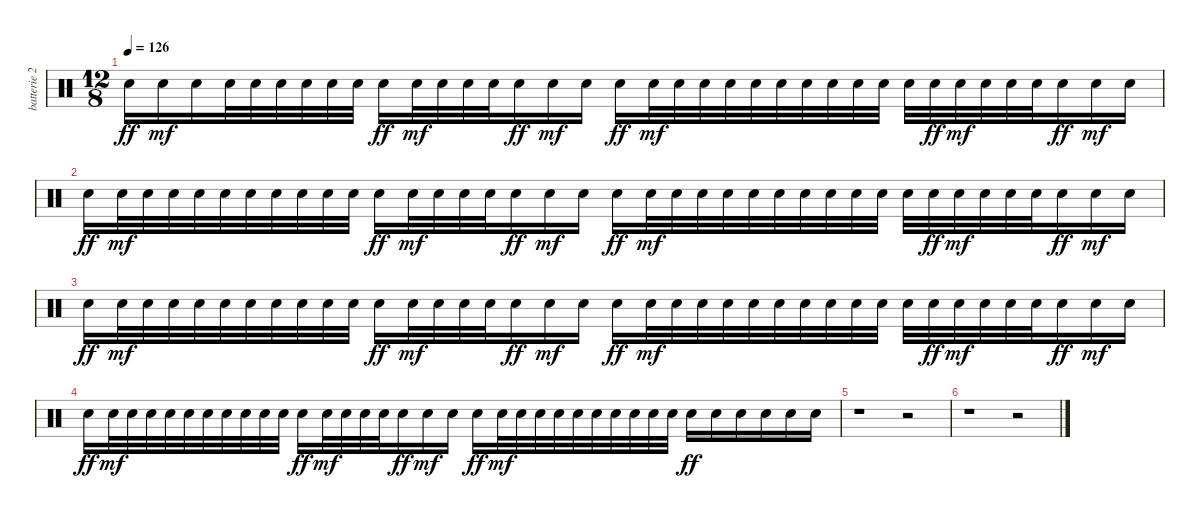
\track ("batterie 2" "batterie 2") {instrument percussion}
\staff {score}
\articulation defaults
\ts (12 8)
\tempo 126
\clef neutral
\ks c "Electric Snare (hit)".16{dy ff} "Electric Snare (hit)".16{dy mf} "Electric Snare (hit)".16 "Electric Snare (hit)".32 "Electric Snare (hit)".32 "Electric Snare (hit)".32 "Electric Snare (hit)".32 "Electric Snare (hit)".32 "Electric Snare (hit)".32 "Electric Snare (hit)".16{dy ff} "Electric Snare (hit)".32{dy mf} "Electric Snare (hit)".32 "Electric Snare (hit)".32 "Electric Snare (hit)".32 "Electric Snare (hit)".16{dy ff} "Electric Snare (hit)".16{dy mf} "Electric Snare (hit)".16 "Electric Snare (hit)".16{dy ff} "Electric Snare (hit)".32{dy mf} "Electric Snare (hit)".32 "Electric Snare (hit)".32 "Electric Snare (hit)".32 "Electric Snare (hit)".32 "Electric Snare (hit)".32 "Electric Snare (hit)".32 "Electric Snare (hit)".32 "Electric Snare (hit)".32 "Electric Snare (hit)".32 "Electric Snare (hit)".32 "Electric Snare (hit)".32{dy ff} "Electric Snare (hit)".32{dy mf} "Electric Snare (hit)".32 "Electric Snare (hit)".32 "Electric Snare (hit)".32 "Electric Snare (hit)".16{dy ff} "Electric Snare (hit)".16{dy mf} "Electric Snare (hit)".16
|
"Electric Snare (hit)".16{dy ff} "Electric Snare (hit)".32{dy mf} "Electric Snare (hit)".32 "Electric Snare (hit)".32 "Electric Snare (hit)".32 "Electric Snare (hit)".32 "Electric Snare (hit)".32 "Electric Snare (hit)".32 "Electric Snare (hit)".32 "Electric Snare (hit)".32 "Electric Snare (hit)".32 "Electric Snare (hit)".16{dy ff} "Electric Snare (hit)".32{dy mf} "Electric Snare (hit)".32 "Electric Snare (hit)".32 "Electric Snare (hit)".32 "Electric Snare (hit)".16{dy ff} "Electric Snare (hit)".16{dy mf} "Electric Snare (hit)".16 "Electric Snare (hit)".16{dy ff} "Electric Snare (hit)".32{dy mf} "Electric Snare (hit)".32 "Electric Snare (hit)".32 "Electric Snare (hit)".32 "Electric Snare (hit)".32 "Electric Snare (hit)".32 "Electric Snare (hit)".32 "Electric Snare (hit)".32 "Electric Snare (hit)".32 "Electric Snare (hit)".32 "Electric Snare (hit)".32 "Electric Snare (hit)".32{dy ff} "Electric Snare (hit)".32{dy mf} "Electric Snare (hit)".32 "Electric Snare (hit)".32 "Electric Snare (hit)".32 "Electric Snare (hit)".16{dy ff} "Electric Snare (hit)".16{dy mf} "Electric Snare (hit)".16 |
"Electric Snare (hit)".16{dy ff} "Electric Snare (hit)".32{dy mf} "Electric Snare (hit)".32 "Electric Snare (hit)".32 "Electric Snare (hit)".32 "Electric Snare (hit)".32 "Electric Snare (hit)".32 "Electric Snare (hit)".32 "Electric Snare (hit)".32 "Electric Snare (hit)".32 "Electric Snare (hit)".32 "Electric Snare (hit)".16{dy ff} "Electric Snare (hit)".32{dy mf} "Electric Snare (hit)".32 "Electric Snare (hit)".32 "Electric Snare (hit)".32 "Electric Snare (hit)".16{dy ff} "Electric Snare (hit)".16{dy mf} "Electric Snare (hit)".16 "Electric Snare (hit)".16{dy ff} "Electric Snare (hit)".32{dy mf} "Electric Snare (hit)".32 "Electric Snare (hit)".32 "Electric Snare (hit)".32 "Electric Snare (hit)".32 "Electric Snare (hit)".32 "Electric Snare (hit)".32 "Electric Snare (hit)".32 "Electric Snare (hit)".32 "Electric Snare (hit)".32 "Electric Snare (hit)".32 "Electric Snare (hit)".32{dy ff} "Electric Snare (hit)".32{dy mf} "Electric Snare (hit)".32 "Electric Snare (hit)".32 "Electric Snare (hit)".32 "Electric Snare (hit)".16{dy ff} "Electric Snare (hit)".16{dy mf} "Electric Snare (hit)".16 |
"Electric Snare (hit)".16{dy ff} "Electric Snare (hit)".32{dy mf} "Electric Snare (hit)".32 "Electric Snare (hit)".32 "Electric Snare (hit)".32 "Electric Snare (hit)".32 "Electric Snare (hit)".32 "Electric Snare (hit)".32 "Electric Snare (hit)".32 "Electric Snare (hit)".32 "Electric Snare (hit)".32 "Electric Snare (hit)".16{dy ff} "Electric Snare (hit)".32{dy mf} "Electric Snare (hit)".32 "Electric Snare (hit)".32 "Electric Snare (hit)".32 "Electric Snare (hit)".16{dy ff} "Electric Snare (hit)".16{dy mf} "Electric Snare (hit)".16 "Electric Snare (hit)".16{dy ff} "Electric Snare (hit)".32{dy mf} "Electric Snare (hit)".32 "Electric Snare (hit)".32 "Electric Snare (hit)".32 "Electric Snare (hit)".32 "Electric Snare (hit)".32 "Electric Snare (hit)".32 "Electric Snare (hit)".32 "Electric Snare (hit)".32 "Electric Snare (hit)".32 "Electric Snare (hit)".16{dy ff} "Electric Snare (hit)".16 "Electric Snare (hit)".16 "Electric Snare (hit)".16 "Electric Snare (hit)".16 "Electric Snare (hit)".16 |
r.1 r.2 |
r.1 r.2
